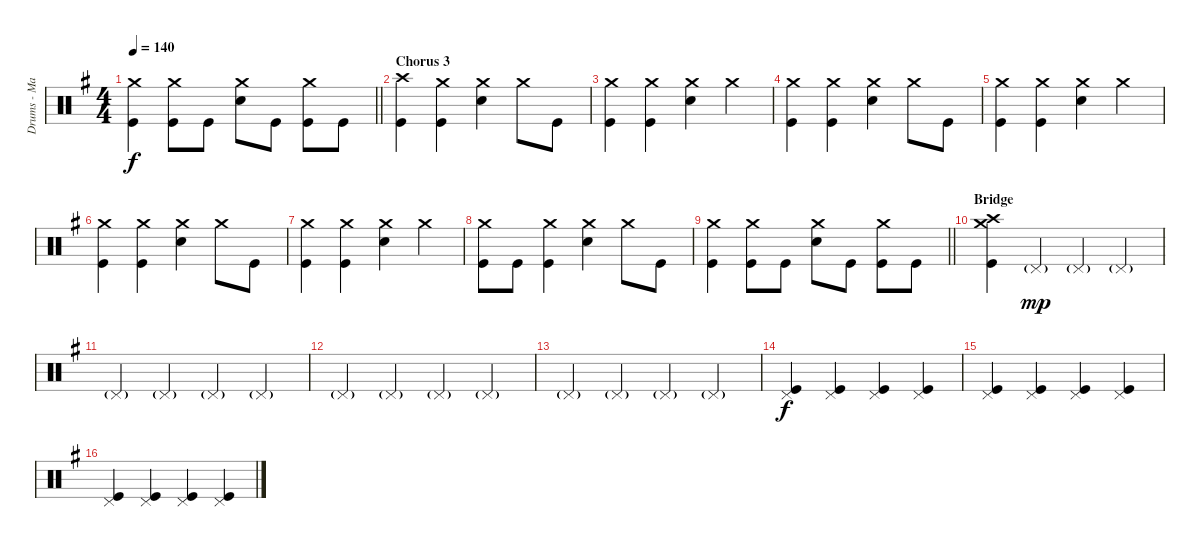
\track ("Drums - Mark O'Connell" "Drums - Ma") {instrument percussion}
\staff {score}
\articulation defaults
\ts (4 4)
\tempo 140
\clef neutral
\barLineRight lightlight
\ks g
("Crash medium (hit)" "Kick (hit)").4{dy f} ("Crash medium (hit)" "Kick (hit)").8 "Kick (hit)".8 ("Crash medium (hit)" "Snare (hit) 2").8 "Kick (hit)".8 ("Crash medium (hit)" "Kick (hit)").8 "Kick (hit)".8 |
\section ("" "Chorus 3")
("Crash high (hit)" "Kick (hit)").4 ("Crash medium (hit)" "Kick (hit)").4 ("Crash medium (hit)" "Snare (hit) 2").4 "Crash medium (hit)".8 "Kick (hit)".8 |
("Crash medium (hit)" "Kick (hit)").4 ("Crash medium (hit)" "Kick (hit)").4 ("Crash medium (hit)" "Snare (hit) 2").4 "Crash medium (hit)".4 |
("Crash medium (hit)" "Kick (hit)").4 ("Crash medium (hit)" "Kick (hit)").4 ("Crash medium (hit)" "Snare (hit) 2").4 "Crash medium (hit)".8 "Kick (hit)".8 |
("Crash medium (hit)" "Kick (hit)").4 ("Crash medium (hit)" "Kick (hit)").4 ("Crash medium (hit)" "Snare (hit) 2").4 "Crash medium (hit)".4 |
("Crash medium (hit)" "Kick (hit)").4 ("Crash medium (hit)" "Kick (hit)").4 ("Crash medium (hit)" "Snare (hit) 2").4 "Crash medium (hit)".8 "Kick (hit)".8 |
("Crash medium (hit)" "Kick (hit)").4 ("Crash medium (hit)" "Kick (hit)").4 ("Crash medium (hit)" "Snare (hit) 2").4 "Crash medium (hit)".4 |
("Crash medium (hit)" "Kick (hit)").8 "Kick (hit)".8 ("Crash medium (hit)" "Kick (hit)").4 ("Crash medium (hit)" "Snare (hit) 2").4 "Crash medium (hit)".8 "Kick (hit)".8 |
\barLineRight lightlight
("Crash medium (hit)" "Kick (hit)").4 ("Crash medium (hit)" "Kick (hit)").8 "Kick (hit)".8 ("Crash medium (hit)" "Snare (hit) 2").8 "Kick (hit)".8 ("Crash medium (hit)" "Kick (hit)").8 "Kick (hit)".8 |
\section ("" "Bridge")
("Crash high (hit)" "Crash medium (hit)" "Kick (hit)").4 "Pedal Hi-Hat (hit)"{g}.4{dy mp} "Pedal Hi-Hat (hit)"{g}.4 "Pedal Hi-Hat (hit)"{g}.4 |
"Pedal Hi-Hat (hit)"{g}.4 "Pedal Hi-Hat (hit)"{g}.4 "Pedal Hi-Hat (hit)"{g}.4 "Pedal Hi-Hat (hit)"{g}.4 |
"Pedal Hi-Hat (hit)"{g}.4 "Pedal Hi-Hat (hit)"{g}.4 "Pedal Hi-Hat (hit)"{g}.4 "Pedal Hi-Hat (hit)"{g}.4 |
"Pedal Hi-Hat (hit)"{g}.4 "Pedal Hi-Hat (hit)"{g}.4 "Pedal Hi-Hat (hit)"{g}.4 "Pedal Hi-Hat (hit)"{g}.4 |
("Pedal Hi-Hat (hit)" "Kick (hit)").4{dy f} ("Pedal Hi-Hat (hit)" "Kick (hit)").4 ("Pedal Hi-Hat (hit)" "Kick (hit)").4 ("Pedal Hi-Hat (hit)" "Kick (hit)").4 |
("Pedal Hi-Hat (hit)" "Kick (hit)").4 ("Pedal Hi-Hat (hit)" "Kick (hit)").4 ("Pedal Hi-Hat (hit)" "Kick (hit)").4 ("Pedal Hi-Hat (hit)" "Kick (hit)").4 |
("Pedal Hi-Hat (hit)" "Kick (hit)").4 ("Pedal Hi-Hat (hit)" "Kick (hit)").4 ("Pedal Hi-Hat (hit)" "Kick (hit)").4 ("Pedal Hi-Hat (hit)" "Kick (hit)").4
